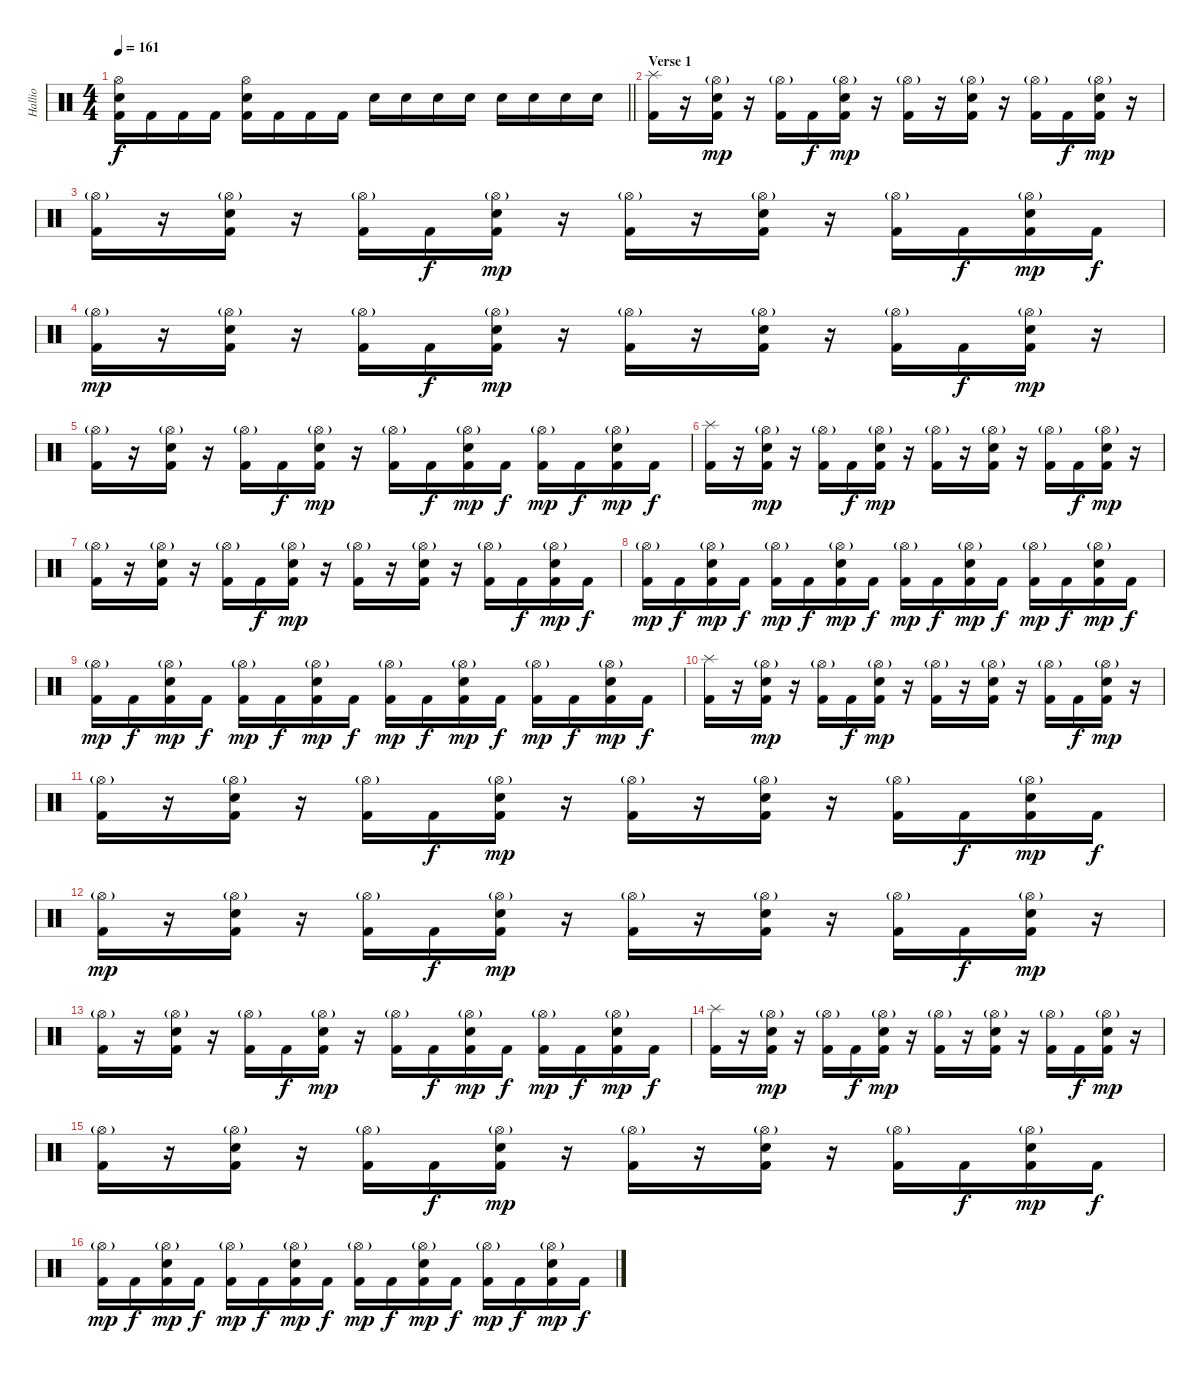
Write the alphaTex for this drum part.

\track ("Hallio" "Hallio") {instrument percussion}
\staff {score}
\articulation defaults
\ts (4 4)
\tempo 161
\clef neutral
\barLineRight lightlight
\ks c
("Kick (hit) 2" "Snare (hit) 2" "Hi-Hat (open)").16{dy f} "Kick (hit) 2".16 "Kick (hit) 2".16 "Kick (hit) 2".16 ("Kick (hit) 2" "Snare (hit) 2" "Hi-Hat (open)").16 "Kick (hit) 2".16 "Kick (hit) 2".16 "Kick (hit) 2".16 "Snare (hit) 2".16 "Snare (hit) 2".16 "Snare (hit) 2".16 "Snare (hit) 2".16 "Snare (hit) 2".16 "Snare (hit) 2".16 "Snare (hit) 2".16 "Snare (hit) 2".16 |
\section ("" "Verse 1")
("Kick (hit) 2" "Splash (hit)").16 r.16 ("Kick (hit) 2" "Snare (hit) 2" "Hi-Hat (open)"{g}).16{dy mp} r.16 ("Kick (hit) 2" "Hi-Hat (open)"{g}).16 "Kick (hit) 2".16{dy f} ("Kick (hit) 2" "Snare (hit) 2" "Hi-Hat (open)"{g}).16{dy mp} r.16 ("Kick (hit) 2" "Hi-Hat (open)"{g}).16 r.16 ("Kick (hit) 2" "Snare (hit) 2" "Hi-Hat (open)"{g}).16 r.16 ("Kick (hit) 2" "Hi-Hat (open)"{g}).16 "Kick (hit) 2".16{dy f} ("Kick (hit) 2" "Snare (hit) 2" "Hi-Hat (open)"{g}).16{dy mp} r.16 |
("Kick (hit) 2" "Hi-Hat (open)"{g}).16 r.16 ("Kick (hit) 2" "Snare (hit) 2" "Hi-Hat (open)"{g}).16 r.16 ("Kick (hit) 2" "Hi-Hat (open)"{g}).16 "Kick (hit) 2".16{dy f} ("Kick (hit) 2" "Snare (hit) 2" "Hi-Hat (open)"{g}).16{dy mp} r.16 ("Kick (hit) 2" "Hi-Hat (open)"{g}).16 r.16 ("Kick (hit) 2" "Snare (hit) 2" "Hi-Hat (open)"{g}).16 r.16 ("Kick (hit) 2" "Hi-Hat (open)"{g}).16 "Kick (hit) 2".16{dy f} ("Kick (hit) 2" "Snare (hit) 2" "Hi-Hat (open)"{g}).16{dy mp} "Kick (hit) 2".16{dy f} |
("Kick (hit) 2" "Hi-Hat (open)"{g}).16{dy mp} r.16 ("Kick (hit) 2" "Snare (hit) 2" "Hi-Hat (open)"{g}).16 r.16 ("Kick (hit) 2" "Hi-Hat (open)"{g}).16 "Kick (hit) 2".16{dy f} ("Kick (hit) 2" "Snare (hit) 2" "Hi-Hat (open)"{g}).16{dy mp} r.16 ("Kick (hit) 2" "Hi-Hat (open)"{g}).16 r.16 ("Kick (hit) 2" "Snare (hit) 2" "Hi-Hat (open)"{g}).16 r.16 ("Kick (hit) 2" "Hi-Hat (open)"{g}).16 "Kick (hit) 2".16{dy f} ("Kick (hit) 2" "Snare (hit) 2" "Hi-Hat (open)"{g}).16{dy mp} r.16 |
("Kick (hit) 2" "Hi-Hat (open)"{g}).16 r.16 ("Kick (hit) 2" "Snare (hit) 2" "Hi-Hat (open)"{g}).16 r.16 ("Kick (hit) 2" "Hi-Hat (open)"{g}).16 "Kick (hit) 2".16{dy f} ("Kick (hit) 2" "Snare (hit) 2" "Hi-Hat (open)"{g}).16{dy mp} r.16 ("Kick (hit) 2" "Hi-Hat (open)"{g}).16 "Kick (hit) 2".16{dy f} ("Kick (hit) 2" "Snare (hit) 2" "Hi-Hat (open)"{g}).16{dy mp} "Kick (hit) 2".16{dy f} ("Kick (hit) 2" "Hi-Hat (open)"{g}).16{dy mp} "Kick (hit) 2".16{dy f} ("Kick (hit) 2" "Snare (hit) 2" "Hi-Hat (open)"{g}).16{dy mp} "Kick (hit) 2".16{dy f} |
("Kick (hit) 2" "Splash (hit)").16 r.16 ("Kick (hit) 2" "Snare (hit) 2" "Hi-Hat (open)"{g}).16{dy mp} r.16 ("Kick (hit) 2" "Hi-Hat (open)"{g}).16 "Kick (hit) 2".16{dy f} ("Kick (hit) 2" "Snare (hit) 2" "Hi-Hat (open)"{g}).16{dy mp} r.16 ("Kick (hit) 2" "Hi-Hat (open)"{g}).16 r.16 ("Kick (hit) 2" "Snare (hit) 2" "Hi-Hat (open)"{g}).16 r.16 ("Kick (hit) 2" "Hi-Hat (open)"{g}).16 "Kick (hit) 2".16{dy f} ("Kick (hit) 2" "Snare (hit) 2" "Hi-Hat (open)"{g}).16{dy mp} r.16 |
("Kick (hit) 2" "Hi-Hat (open)"{g}).16 r.16 ("Kick (hit) 2" "Snare (hit) 2" "Hi-Hat (open)"{g}).16 r.16 ("Kick (hit) 2" "Hi-Hat (open)"{g}).16 "Kick (hit) 2".16{dy f} ("Kick (hit) 2" "Snare (hit) 2" "Hi-Hat (open)"{g}).16{dy mp} r.16 ("Kick (hit) 2" "Hi-Hat (open)"{g}).16 r.16 ("Kick (hit) 2" "Snare (hit) 2" "Hi-Hat (open)"{g}).16 r.16 ("Kick (hit) 2" "Hi-Hat (open)"{g}).16 "Kick (hit) 2".16{dy f} ("Kick (hit) 2" "Snare (hit) 2" "Hi-Hat (open)"{g}).16{dy mp} "Kick (hit) 2".16{dy f} |
("Kick (hit) 2" "Hi-Hat (open)"{g}).16{dy mp} "Kick (hit) 2".16{dy f} ("Kick (hit) 2" "Snare (hit) 2" "Hi-Hat (open)"{g}).16{dy mp} "Kick (hit) 2".16{dy f} ("Kick (hit) 2" "Hi-Hat (open)"{g}).16{dy mp} "Kick (hit) 2".16{dy f} ("Kick (hit) 2" "Snare (hit) 2" "Hi-Hat (open)"{g}).16{dy mp} "Kick (hit) 2".16{dy f} ("Kick (hit) 2" "Hi-Hat (open)"{g}).16{dy mp} "Kick (hit) 2".16{dy f} ("Kick (hit) 2" "Snare (hit) 2" "Hi-Hat (open)"{g}).16{dy mp} "Kick (hit) 2".16{dy f} ("Kick (hit) 2" "Hi-Hat (open)"{g}).16{dy mp} "Kick (hit) 2".16{dy f} ("Kick (hit) 2" "Snare (hit) 2" "Hi-Hat (open)"{g}).16{dy mp} "Kick (hit) 2".16{dy f} |
("Kick (hit) 2" "Hi-Hat (open)"{g}).16{dy mp} "Kick (hit) 2".16{dy f} ("Kick (hit) 2" "Snare (hit) 2" "Hi-Hat (open)"{g}).16{dy mp} "Kick (hit) 2".16{dy f} ("Kick (hit) 2" "Hi-Hat (open)"{g}).16{dy mp} "Kick (hit) 2".16{dy f} ("Kick (hit) 2" "Snare (hit) 2" "Hi-Hat (open)"{g}).16{dy mp} "Kick (hit) 2".16{dy f} ("Kick (hit) 2" "Hi-Hat (open)"{g}).16{dy mp} "Kick (hit) 2".16{dy f} ("Kick (hit) 2" "Snare (hit) 2" "Hi-Hat (open)"{g}).16{dy mp} "Kick (hit) 2".16{dy f} ("Kick (hit) 2" "Hi-Hat (open)"{g}).16{dy mp} "Kick (hit) 2".16{dy f} ("Kick (hit) 2" "Snare (hit) 2" "Hi-Hat (open)"{g}).16{dy mp} "Kick (hit) 2".16{dy f} |
("Kick (hit) 2" "Splash (hit)").16 r.16 ("Kick (hit) 2" "Snare (hit) 2" "Hi-Hat (open)"{g}).16{dy mp} r.16 ("Kick (hit) 2" "Hi-Hat (open)"{g}).16 "Kick (hit) 2".16{dy f} ("Kick (hit) 2" "Snare (hit) 2" "Hi-Hat (open)"{g}).16{dy mp} r.16 ("Kick (hit) 2" "Hi-Hat (open)"{g}).16 r.16 ("Kick (hit) 2" "Snare (hit) 2" "Hi-Hat (open)"{g}).16 r.16 ("Kick (hit) 2" "Hi-Hat (open)"{g}).16 "Kick (hit) 2".16{dy f} ("Kick (hit) 2" "Snare (hit) 2" "Hi-Hat (open)"{g}).16{dy mp} r.16 |
("Kick (hit) 2" "Hi-Hat (open)"{g}).16 r.16 ("Kick (hit) 2" "Snare (hit) 2" "Hi-Hat (open)"{g}).16 r.16 ("Kick (hit) 2" "Hi-Hat (open)"{g}).16 "Kick (hit) 2".16{dy f} ("Kick (hit) 2" "Snare (hit) 2" "Hi-Hat (open)"{g}).16{dy mp} r.16 ("Kick (hit) 2" "Hi-Hat (open)"{g}).16 r.16 ("Kick (hit) 2" "Snare (hit) 2" "Hi-Hat (open)"{g}).16 r.16 ("Kick (hit) 2" "Hi-Hat (open)"{g}).16 "Kick (hit) 2".16{dy f} ("Kick (hit) 2" "Snare (hit) 2" "Hi-Hat (open)"{g}).16{dy mp} "Kick (hit) 2".16{dy f} |
("Kick (hit) 2" "Hi-Hat (open)"{g}).16{dy mp} r.16 ("Kick (hit) 2" "Snare (hit) 2" "Hi-Hat (open)"{g}).16 r.16 ("Kick (hit) 2" "Hi-Hat (open)"{g}).16 "Kick (hit) 2".16{dy f} ("Kick (hit) 2" "Snare (hit) 2" "Hi-Hat (open)"{g}).16{dy mp} r.16 ("Kick (hit) 2" "Hi-Hat (open)"{g}).16 r.16 ("Kick (hit) 2" "Snare (hit) 2" "Hi-Hat (open)"{g}).16 r.16 ("Kick (hit) 2" "Hi-Hat (open)"{g}).16 "Kick (hit) 2".16{dy f} ("Kick (hit) 2" "Snare (hit) 2" "Hi-Hat (open)"{g}).16{dy mp} r.16 |
("Kick (hit) 2" "Hi-Hat (open)"{g}).16 r.16 ("Kick (hit) 2" "Snare (hit) 2" "Hi-Hat (open)"{g}).16 r.16 ("Kick (hit) 2" "Hi-Hat (open)"{g}).16 "Kick (hit) 2".16{dy f} ("Kick (hit) 2" "Snare (hit) 2" "Hi-Hat (open)"{g}).16{dy mp} r.16 ("Kick (hit) 2" "Hi-Hat (open)"{g}).16 "Kick (hit) 2".16{dy f} ("Kick (hit) 2" "Snare (hit) 2" "Hi-Hat (open)"{g}).16{dy mp} "Kick (hit) 2".16{dy f} ("Kick (hit) 2" "Hi-Hat (open)"{g}).16{dy mp} "Kick (hit) 2".16{dy f} ("Kick (hit) 2" "Snare (hit) 2" "Hi-Hat (open)"{g}).16{dy mp} "Kick (hit) 2".16{dy f} |
("Kick (hit) 2" "Splash (hit)").16 r.16 ("Kick (hit) 2" "Snare (hit) 2" "Hi-Hat (open)"{g}).16{dy mp} r.16 ("Kick (hit) 2" "Hi-Hat (open)"{g}).16 "Kick (hit) 2".16{dy f} ("Kick (hit) 2" "Snare (hit) 2" "Hi-Hat (open)"{g}).16{dy mp} r.16 ("Kick (hit) 2" "Hi-Hat (open)"{g}).16 r.16 ("Kick (hit) 2" "Snare (hit) 2" "Hi-Hat (open)"{g}).16 r.16 ("Kick (hit) 2" "Hi-Hat (open)"{g}).16 "Kick (hit) 2".16{dy f} ("Kick (hit) 2" "Snare (hit) 2" "Hi-Hat (open)"{g}).16{dy mp} r.16 |
("Kick (hit) 2" "Hi-Hat (open)"{g}).16 r.16 ("Kick (hit) 2" "Snare (hit) 2" "Hi-Hat (open)"{g}).16 r.16 ("Kick (hit) 2" "Hi-Hat (open)"{g}).16 "Kick (hit) 2".16{dy f} ("Kick (hit) 2" "Snare (hit) 2" "Hi-Hat (open)"{g}).16{dy mp} r.16 ("Kick (hit) 2" "Hi-Hat (open)"{g}).16 r.16 ("Kick (hit) 2" "Snare (hit) 2" "Hi-Hat (open)"{g}).16 r.16 ("Kick (hit) 2" "Hi-Hat (open)"{g}).16 "Kick (hit) 2".16{dy f} ("Kick (hit) 2" "Snare (hit) 2" "Hi-Hat (open)"{g}).16{dy mp} "Kick (hit) 2".16{dy f} |
("Kick (hit) 2" "Hi-Hat (open)"{g}).16{dy mp} "Kick (hit) 2".16{dy f} ("Kick (hit) 2" "Snare (hit) 2" "Hi-Hat (open)"{g}).16{dy mp} "Kick (hit) 2".16{dy f} ("Kick (hit) 2" "Hi-Hat (open)"{g}).16{dy mp} "Kick (hit) 2".16{dy f} ("Kick (hit) 2" "Snare (hit) 2" "Hi-Hat (open)"{g}).16{dy mp} "Kick (hit) 2".16{dy f} ("Kick (hit) 2" "Hi-Hat (open)"{g}).16{dy mp} "Kick (hit) 2".16{dy f} ("Kick (hit) 2" "Snare (hit) 2" "Hi-Hat (open)"{g}).16{dy mp} "Kick (hit) 2".16{dy f} ("Kick (hit) 2" "Hi-Hat (open)"{g}).16{dy mp} "Kick (hit) 2".16{dy f} ("Kick (hit) 2" "Snare (hit) 2" "Hi-Hat (open)"{g}).16{dy mp} "Kick (hit) 2".16{dy f}
